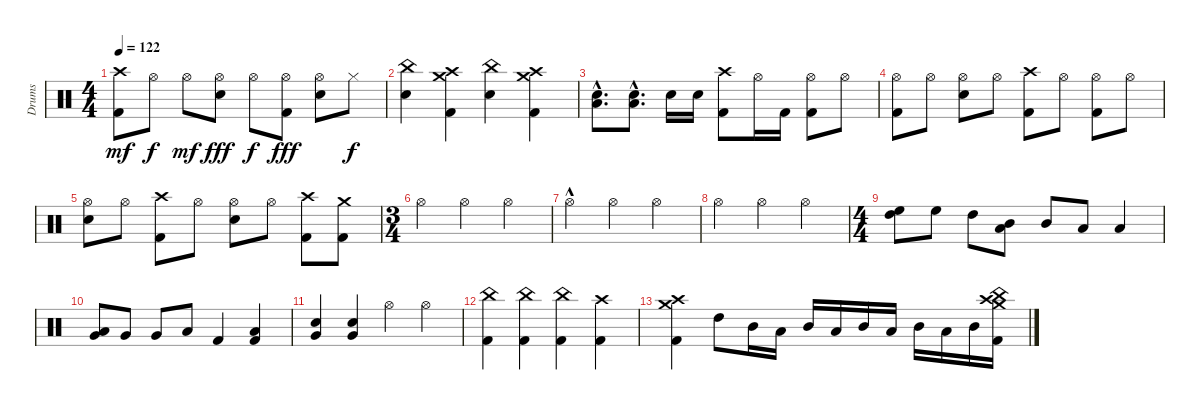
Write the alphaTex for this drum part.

\track ("Drums" "Drums") {instrument percussion}
\staff {score}
\articulation defaults
\ts (4 4)
\tempo 122
\clef neutral
\ks c
("Crash high (hit)" "Kick (hit) 2").8{dy mf} "Hi-Hat (open)".8{dy f} "Hi-Hat (open)".8{dy mf} ("Hi-Hat (open)" "Snare (hit) 2").8{dy fff} "Hi-Hat (open)".8{dy f} ("Hi-Hat (open)" "Kick (hit) 2").8{dy fff} ("Hi-Hat (open)" "Snare (hit) 2").8 "Hi-Hat (closed)".8{dy f} |
("Snare (hit) 2" "China (hit)").4 ("Crash high (hit)" "Kick (hit) 2" "Crash medium (hit)").4 ("Snare (hit) 2" "China (hit)").4 ("Crash high (hit)" "Kick (hit) 2" "Crash medium (hit)").4 |
("Low Floor Tom (hit)"{hac} "Snare (hit) 2"{hac}).8{d} ("Low Floor Tom (hit)"{hac} "Snare (hit) 2"{hac}).8{d} "Snare (hit) 2".16 "Snare (hit) 2".16 ("Crash high (hit)" "Kick (hit) 2").8 "Hi-Hat (open)".16 "Kick (hit) 2".16 ("Hi-Hat (open)" "Kick (hit) 2").8 "Hi-Hat (open)".8 |
("Hi-Hat (open)" "Kick (hit) 2").8 "Hi-Hat (open)".8 ("Hi-Hat (open)" "Snare (hit) 2").8 "Hi-Hat (open)".8 ("Crash high (hit)" "Kick (hit) 2").8 "Hi-Hat (open)".8 ("Hi-Hat (open)" "Kick (hit) 2").8 "Hi-Hat (open)".8 |
("Hi-Hat (open)" "Snare (hit) 2").8 "Hi-Hat (open)".8 ("Crash high (hit)" "Kick (hit) 2").8 "Hi-Hat (open)".8 ("Hi-Hat (open)" "Snare (hit) 2").8 "Hi-Hat (open)".8 ("Crash high (hit)" "Kick (hit) 2").8 ("Crash medium (hit)" "Kick (hit) 2").8 |
\ts (3 4)
"Hi-Hat (open)".4 "Hi-Hat (open)".4 "Hi-Hat (open)".4 |
"Hi-Hat (open)"{hac}.4 "Hi-Hat (open)".4 "Hi-Hat (open)".4 |
"Hi-Hat (open)".4 "Hi-Hat (open)".4 "Hi-Hat (open)".4 |
\ts (4 4)
("High Tom (hit)" "High Floor Tom (hit)").8 "High Floor Tom (hit)".8 "High Tom (hit)".8 ("Mid Tom (hit)" "Low Tom (hit)").8 "Mid Tom (hit)".8 "Low Tom (hit)".8 "Low Floor Tom (hit)".4 |
("Low Floor Tom (hit)" "Very Low Tom (hit)").8 "Very Low Tom (hit)".8 "Very Low Tom (hit)".8 "Low Floor Tom (hit)".8 "Kick (hit) 2".4 ("Low Floor Tom (hit)" "Kick (hit) 2").4 |
("Very Low Tom (hit)" "Snare (hit) 2").4 ("Snare (hit) 2" "Very Low Tom (hit)").4 "Hi-Hat (open)".4 "Hi-Hat (open)".4 |
("China (hit)" "Kick (hit) 2").4 ("China (hit)" "Kick (hit) 2").4 ("China (hit)" "Kick (hit) 2").4 ("Crash high (hit)" "Kick (hit) 2").4 |
("Crash high (hit)" "Crash medium (hit)" "Kick (hit) 2").4 "High Tom (hit)".8 "Mid Tom (hit)".16 "Low Tom (hit)".16 "Mid Tom (hit)".16 "Low Tom (hit)".16 "Mid Tom (hit)".16 "Low Tom (hit)".16 "Mid Tom (hit)".16 "Low Tom (hit)".16 "Mid Tom (hit)".16 ("China (hit)" "Crash high (hit)" "Crash medium (hit)" "Kick (hit) 2").16
